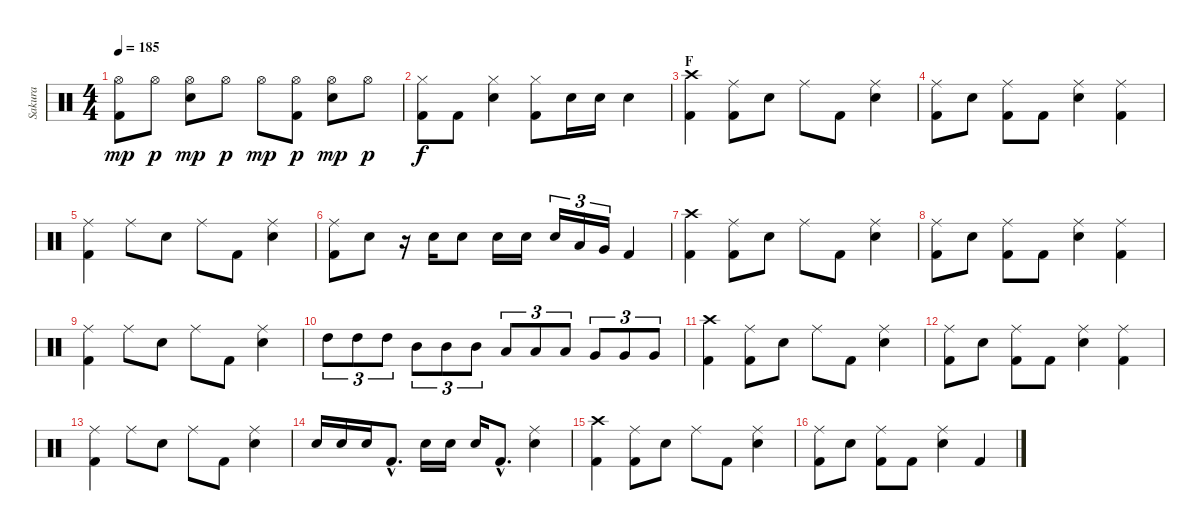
\track ("Sakura" "Sakura") {instrument percussion}
\staff {score}
\articulation defaults
\ts (4 4)
\tempo 185
\clef neutral
\ks c
("Hi-Hat (open)" "Kick (hit) 2").8{dy mp} "Hi-Hat (open)".8{dy p} ("Hi-Hat (open)" "Electric Snare (hit)").8{dy mp} "Hi-Hat (open)".8{dy p} "Hi-Hat (open)".8{dy mp} ("Hi-Hat (open)" "Kick (hit) 2").8{dy p} ("Hi-Hat (open)" "Electric Snare (hit)").8{dy mp} "Hi-Hat (open)".8{dy p} |
("Hi-Hat (closed)" "Kick (hit) 2").8{dy f} "Kick (hit) 2".8 ("Hi-Hat (closed)" "Electric Snare (hit)").4 ("Hi-Hat (closed)" "Kick (hit) 2").8 "Electric Snare (hit)".16 "Electric Snare (hit)".16 "Electric Snare (hit)".4 |
\section ("" "F")
("Crash high (hit)" "Kick (hit) 2").4 ("Ride (middle)" "Kick (hit) 2").8 "Electric Snare (hit)".8 "Ride (middle)".8 "Kick (hit) 2".8 ("Ride (middle)" "Electric Snare (hit)").4 |
("Ride (middle)" "Kick (hit) 2").8 "Electric Snare (hit)".8 ("Ride (middle)" "Kick (hit) 2").8 "Kick (hit) 2".8 ("Ride (middle)" "Electric Snare (hit)").4 ("Ride (middle)" "Kick (hit) 2").4 |
("Ride (middle)" "Kick (hit) 2").4 "Ride (middle)".8 "Electric Snare (hit)".8 "Ride (middle)".8 "Kick (hit) 2".8 ("Ride (middle)" "Electric Snare (hit)").4 |
("Ride (middle)" "Kick (hit) 2").8 "Electric Snare (hit)".8 r.16 "Electric Snare (hit)".16 "Electric Snare (hit)".8 "Electric Snare (hit)".16 "Electric Snare (hit)".16 "Electric Snare (hit)".16{tu (3 2)} "Low Tom (hit)".16{tu (3 2)} "Very Low Tom (hit)".16{tu (3 2)} "Kick (hit) 2".4 |
("Crash high (hit)" "Kick (hit) 2").4 ("Ride (middle)" "Kick (hit) 2").8 "Electric Snare (hit)".8 "Ride (middle)".8 "Kick (hit) 2".8 ("Ride (middle)" "Electric Snare (hit)").4 |
("Ride (middle)" "Kick (hit) 2").8 "Electric Snare (hit)".8 ("Ride (middle)" "Kick (hit) 2").8 "Kick (hit) 2".8 ("Ride (middle)" "Electric Snare (hit)").4 ("Ride (middle)" "Kick (hit) 2").4 |
("Ride (middle)" "Kick (hit) 2").4 "Ride (middle)".8 "Electric Snare (hit)".8 "Ride (middle)".8 "Kick (hit) 2".8 ("Ride (middle)" "Electric Snare (hit)").4 |
"High Tom (hit)".8{tu (3 2)} "High Tom (hit)".8{tu (3 2)} "High Tom (hit)".8{tu (3 2)} "Mid Tom (hit)".8{tu (3 2)} "Mid Tom (hit)".8{tu (3 2)} "Mid Tom (hit)".8{tu (3 2)} "Low Tom (hit)".8{tu (3 2)} "Low Tom (hit)".8{tu (3 2)} "Low Tom (hit)".8{tu (3 2)} "Very Low Tom (hit)".8{tu (3 2)} "Very Low Tom (hit)".8{tu (3 2)} "Very Low Tom (hit)".8{tu (3 2)} |
("Crash high (hit)" "Kick (hit) 2").4 ("Ride (middle)" "Kick (hit) 2").8 "Electric Snare (hit)".8 "Ride (middle)".8 "Kick (hit) 2".8 ("Ride (middle)" "Electric Snare (hit)").4 |
("Ride (middle)" "Kick (hit) 2").8 "Electric Snare (hit)".8 ("Ride (middle)" "Kick (hit) 2").8 "Kick (hit) 2".8 ("Ride (middle)" "Electric Snare (hit)").4 ("Ride (middle)" "Kick (hit) 2").4 |
("Ride (middle)" "Kick (hit) 2").4 "Ride (middle)".8 "Electric Snare (hit)".8 "Ride (middle)".8 "Kick (hit) 2".8 ("Ride (middle)" "Electric Snare (hit)").4 |
"Electric Snare (hit)".16 "Electric Snare (hit)".16 "Electric Snare (hit)".16 "Kick (hit) 2"{hac}.8{d} "Electric Snare (hit)".16 "Electric Snare (hit)".16 "Electric Snare (hit)".16 "Kick (hit) 2"{hac}.8{d} ("Ride (middle)" "Electric Snare (hit)").4 |
("Crash high (hit)" "Kick (hit) 2").4 ("Ride (middle)" "Kick (hit) 2").8 "Electric Snare (hit)".8 "Ride (middle)".8 "Kick (hit) 2".8 ("Ride (middle)" "Electric Snare (hit)").4 |
("Ride (middle)" "Kick (hit) 2").8 "Electric Snare (hit)".8 ("Ride (middle)" "Kick (hit) 2").8 "Kick (hit) 2".8 ("Ride (middle)" "Electric Snare (hit)").4 "Kick (hit) 2".4
